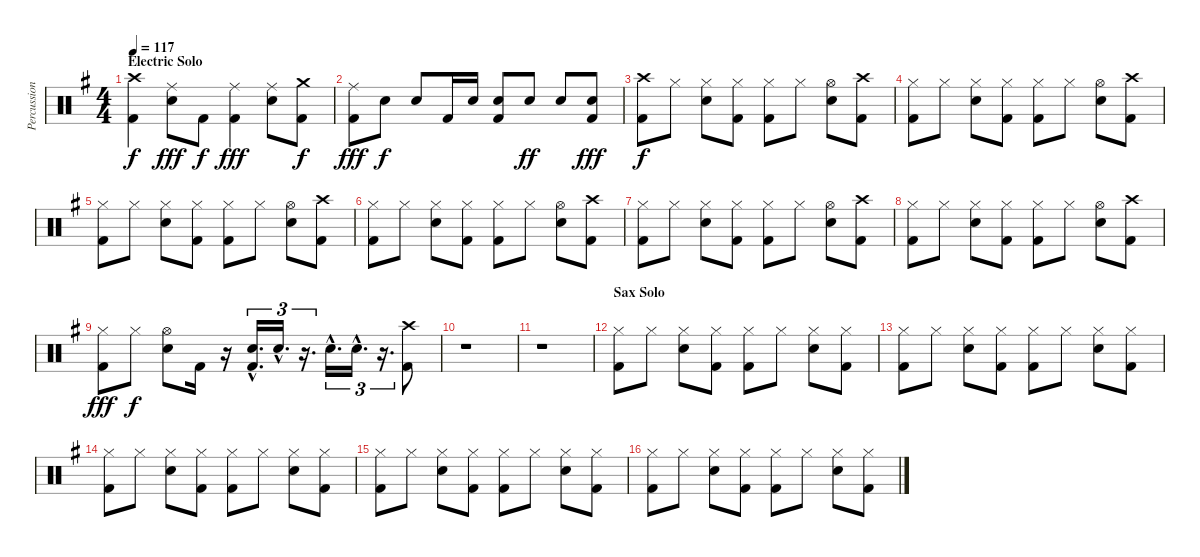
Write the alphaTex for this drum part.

\track ("Percussion" "Percussion") {instrument percussion}
\staff {score}
\articulation defaults
\ts (4 4)
\section ("" "Electric Solo")
\tempo 117
\clef neutral
\ks g
("Crash high (hit)" "Kick (hit) 2").4{dy f} ("Ride (middle)" "Electric Snare (hit)").8{dy fff} "Kick (hit) 2".8{dy f} ("Ride (middle)" "Kick (hit) 2").4{dy fff} ("Ride (middle)" "Electric Snare (hit)").8 ("Crash medium (hit)" "Kick (hit) 2").8{dy f} |
("Ride (middle)" "Kick (hit) 2").8{dy fff} "Electric Snare (hit)".8{dy f} "Electric Snare (hit)".8 "Kick (hit) 2".16 "Electric Snare (hit)".16 ("Electric Snare (hit)" "Kick (hit) 2").8 "Electric Snare (hit)".8{dy ff} "Electric Snare (hit)".8 ("Electric Snare (hit)" "Kick (hit) 2").8{dy fff} |
("Crash high (hit)" "Kick (hit) 2").8{dy f} "Hi-Hat (closed)".8 ("Hi-Hat (closed)" "Electric Snare (hit)").8 ("Hi-Hat (closed)" "Kick (hit) 2").8 ("Hi-Hat (closed)" "Kick (hit) 2").8 "Hi-Hat (closed)".8 ("Hi-Hat (open)" "Electric Snare (hit)").8 ("Crash high (hit)" "Kick (hit) 2").8 |
("Hi-Hat (closed)" "Kick (hit) 2").8 "Hi-Hat (closed)".8 ("Hi-Hat (closed)" "Electric Snare (hit)").8 ("Hi-Hat (closed)" "Kick (hit) 2").8 ("Hi-Hat (closed)" "Kick (hit) 2").8 "Hi-Hat (closed)".8 ("Hi-Hat (open)" "Electric Snare (hit)").8 ("Crash high (hit)" "Kick (hit) 2").8 |
("Hi-Hat (closed)" "Kick (hit) 2").8 "Hi-Hat (closed)".8 ("Hi-Hat (closed)" "Electric Snare (hit)").8 ("Hi-Hat (closed)" "Kick (hit) 2").8 ("Hi-Hat (closed)" "Kick (hit) 2").8 "Hi-Hat (closed)".8 ("Hi-Hat (open)" "Electric Snare (hit)").8 ("Crash high (hit)" "Kick (hit) 2").8 |
("Hi-Hat (closed)" "Kick (hit) 2").8 "Hi-Hat (closed)".8 ("Hi-Hat (closed)" "Electric Snare (hit)").8 ("Hi-Hat (closed)" "Kick (hit) 2").8 ("Hi-Hat (closed)" "Kick (hit) 2").8 "Hi-Hat (closed)".8 ("Hi-Hat (open)" "Electric Snare (hit)").8 ("Crash high (hit)" "Kick (hit) 2").8 |
("Hi-Hat (closed)" "Kick (hit) 2").8 "Hi-Hat (closed)".8 ("Hi-Hat (closed)" "Electric Snare (hit)").8 ("Hi-Hat (closed)" "Kick (hit) 2").8 ("Hi-Hat (closed)" "Kick (hit) 2").8 "Hi-Hat (closed)".8 ("Hi-Hat (open)" "Electric Snare (hit)").8 ("Crash high (hit)" "Kick (hit) 2").8 |
("Hi-Hat (closed)" "Kick (hit) 2").8 "Hi-Hat (closed)".8 ("Hi-Hat (closed)" "Electric Snare (hit)").8 ("Hi-Hat (closed)" "Kick (hit) 2").8 ("Hi-Hat (closed)" "Kick (hit) 2").8 "Hi-Hat (closed)".8 ("Hi-Hat (open)" "Electric Snare (hit)").8 ("Crash high (hit)" "Kick (hit) 2").8 |
("Hi-Hat (closed)" "Kick (hit) 2").8{dy fff} "Hi-Hat (closed)".8{dy f} ("Hi-Hat (open)" "Electric Snare (hit)").8 "Kick (hit) 2".16 r.16 ("Electric Snare (hit)"{hac} "Kick (hit) 2"{hac}).16{d tu (3 2)} "Electric Snare (hit)"{hac}.16{d tu (3 2)} r.16{d tu (3 2)} "Electric Snare (hit)"{hac}.16{d tu (3 2)} "Electric Snare (hit)"{hac}.16{d tu (3 2)} r.16{d tu (3 2)} ("Crash high (hit)" "Kick (hit) 2").8 |
r.1 |
r.1 |
\section ("" "Sax Solo")
("Hi-Hat (closed)" "Kick (hit) 2").8 "Hi-Hat (closed)".8 ("Hi-Hat (closed)" "Electric Snare (hit)").8 ("Hi-Hat (closed)" "Kick (hit) 2").8 ("Hi-Hat (closed)" "Kick (hit) 2").8 "Hi-Hat (closed)".8 ("Hi-Hat (closed)" "Electric Snare (hit)").8 ("Hi-Hat (closed)" "Kick (hit) 2").8 |
("Hi-Hat (closed)" "Kick (hit) 2").8 "Hi-Hat (closed)".8 ("Hi-Hat (closed)" "Electric Snare (hit)").8 ("Hi-Hat (closed)" "Kick (hit) 2").8 ("Hi-Hat (closed)" "Kick (hit) 2").8 "Hi-Hat (closed)".8 ("Hi-Hat (closed)" "Electric Snare (hit)").8 ("Hi-Hat (closed)" "Kick (hit) 2").8 |
("Hi-Hat (closed)" "Kick (hit) 2").8 "Hi-Hat (closed)".8 ("Hi-Hat (closed)" "Electric Snare (hit)").8 ("Hi-Hat (closed)" "Kick (hit) 2").8 ("Hi-Hat (closed)" "Kick (hit) 2").8 "Hi-Hat (closed)".8 ("Hi-Hat (closed)" "Electric Snare (hit)").8 ("Hi-Hat (closed)" "Kick (hit) 2").8 |
("Hi-Hat (closed)" "Kick (hit) 2").8 "Hi-Hat (closed)".8 ("Hi-Hat (closed)" "Electric Snare (hit)").8 ("Hi-Hat (closed)" "Kick (hit) 2").8 ("Hi-Hat (closed)" "Kick (hit) 2").8 "Hi-Hat (closed)".8 ("Hi-Hat (closed)" "Electric Snare (hit)").8 ("Hi-Hat (closed)" "Kick (hit) 2").8 |
("Hi-Hat (closed)" "Kick (hit) 2").8 "Hi-Hat (closed)".8 ("Hi-Hat (closed)" "Electric Snare (hit)").8 ("Hi-Hat (closed)" "Kick (hit) 2").8 ("Hi-Hat (closed)" "Kick (hit) 2").8 "Hi-Hat (closed)".8 ("Hi-Hat (closed)" "Electric Snare (hit)").8 ("Hi-Hat (closed)" "Kick (hit) 2").8
